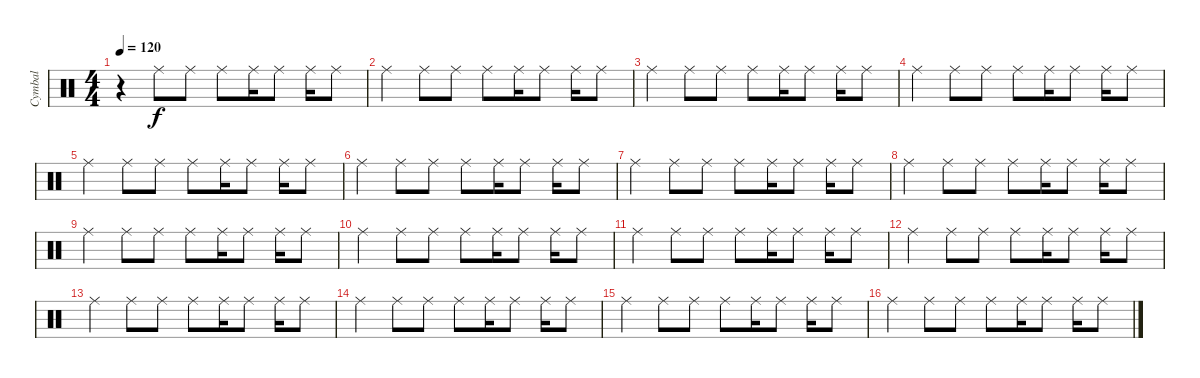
\track ("Cymbal" "Cymbal") {instrument percussion}
\staff {score}
\articulation defaults
\ts (4 4)
\tempo 120
\clef neutral
\ks c
r.4{dy f} "Ride (middle)".8 "Ride (middle)".8 "Ride (middle)".8 "Ride (middle)".16 "Ride (middle)".8 "Ride (middle)".16 "Ride (middle)".8 |
"Ride (middle)".4 "Ride (middle)".8 "Ride (middle)".8 "Ride (middle)".8 "Ride (middle)".16 "Ride (middle)".8 "Ride (middle)".16 "Ride (middle)".8 |
"Ride (middle)".4 "Ride (middle)".8 "Ride (middle)".8 "Ride (middle)".8 "Ride (middle)".16 "Ride (middle)".8 "Ride (middle)".16 "Ride (middle)".8 |
"Ride (middle)".4 "Ride (middle)".8 "Ride (middle)".8 "Ride (middle)".8 "Ride (middle)".16 "Ride (middle)".8 "Ride (middle)".16 "Ride (middle)".8 |
"Ride (middle)".4 "Ride (middle)".8 "Ride (middle)".8 "Ride (middle)".8 "Ride (middle)".16 "Ride (middle)".8 "Ride (middle)".16 "Ride (middle)".8 |
"Ride (middle)".4 "Ride (middle)".8 "Ride (middle)".8 "Ride (middle)".8 "Ride (middle)".16 "Ride (middle)".8 "Ride (middle)".16 "Ride (middle)".8 |
"Ride (middle)".4 "Ride (middle)".8 "Ride (middle)".8 "Ride (middle)".8 "Ride (middle)".16 "Ride (middle)".8 "Ride (middle)".16 "Ride (middle)".8 |
"Ride (middle)".4 "Ride (middle)".8 "Ride (middle)".8 "Ride (middle)".8 "Ride (middle)".16 "Ride (middle)".8 "Ride (middle)".16 "Ride (middle)".8 |
"Ride (middle)".4 "Ride (middle)".8 "Ride (middle)".8 "Ride (middle)".8 "Ride (middle)".16 "Ride (middle)".8 "Ride (middle)".16 "Ride (middle)".8 |
"Ride (middle)".4 "Ride (middle)".8 "Ride (middle)".8 "Ride (middle)".8 "Ride (middle)".16 "Ride (middle)".8 "Ride (middle)".16 "Ride (middle)".8 |
"Ride (middle)".4 "Ride (middle)".8 "Ride (middle)".8 "Ride (middle)".8 "Ride (middle)".16 "Ride (middle)".8 "Ride (middle)".16 "Ride (middle)".8 |
"Ride (middle)".4 "Ride (middle)".8 "Ride (middle)".8 "Ride (middle)".8 "Ride (middle)".16 "Ride (middle)".8 "Ride (middle)".16 "Ride (middle)".8 |
"Ride (middle)".4 "Ride (middle)".8 "Ride (middle)".8 "Ride (middle)".8 "Ride (middle)".16 "Ride (middle)".8 "Ride (middle)".16 "Ride (middle)".8 |
"Ride (middle)".4 "Ride (middle)".8 "Ride (middle)".8 "Ride (middle)".8 "Ride (middle)".16 "Ride (middle)".8 "Ride (middle)".16 "Ride (middle)".8 |
"Ride (middle)".4 "Ride (middle)".8 "Ride (middle)".8 "Ride (middle)".8 "Ride (middle)".16 "Ride (middle)".8 "Ride (middle)".16 "Ride (middle)".8 |
"Ride (middle)".4 "Ride (middle)".8 "Ride (middle)".8 "Ride (middle)".8 "Ride (middle)".16 "Ride (middle)".8 "Ride (middle)".16 "Ride (middle)".8
